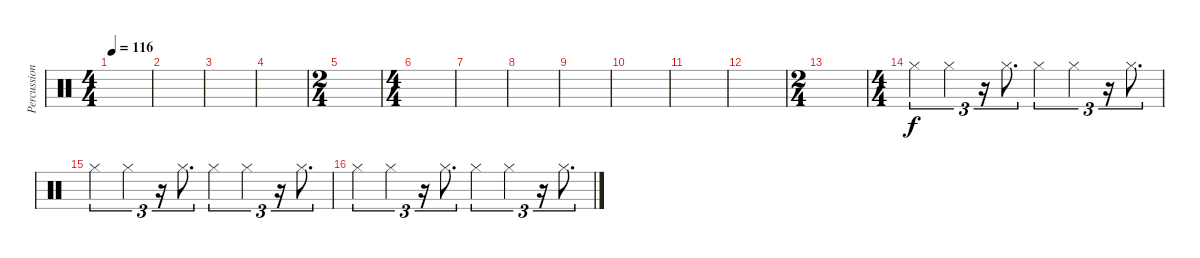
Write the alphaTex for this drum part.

\track ("Percussioni" "Percussion") {instrument percussion}
\staff {score}
\articulation defaults
\ts (4 4)
\tempo 116
\clef neutral
\ks c
|
|
|
|
\ts (2 4)
|
\ts (4 4)
|
|
|
|
|
|
|
\ts (2 4)
|
\ts (4 4)
"Hi-Hat (closed)".4{tu (3 2)} "Hi-Hat (closed)".4{tu (3 2)} r.16{tu (3 2)} "Hi-Hat (closed)".8{d tu (3 2)} "Hi-Hat (closed)".4{tu (3 2)} "Hi-Hat (closed)".4{tu (3 2)} r.16{tu (3 2)} "Hi-Hat (closed)".8{d tu (3 2)} |
"Hi-Hat (closed)".4{tu (3 2)} "Hi-Hat (closed)".4{tu (3 2)} r.16{tu (3 2)} "Hi-Hat (closed)".8{d tu (3 2)} "Hi-Hat (closed)".4{tu (3 2)} "Hi-Hat (closed)".4{tu (3 2)} r.16{tu (3 2)} "Hi-Hat (closed)".8{d tu (3 2)} |
"Hi-Hat (closed)".4{tu (3 2)} "Hi-Hat (closed)".4{tu (3 2)} r.16{tu (3 2)} "Hi-Hat (closed)".8{d tu (3 2)} "Hi-Hat (closed)".4{tu (3 2)} "Hi-Hat (closed)".4{tu (3 2)} r.16{tu (3 2)} "Hi-Hat (closed)".8{d tu (3 2)}
